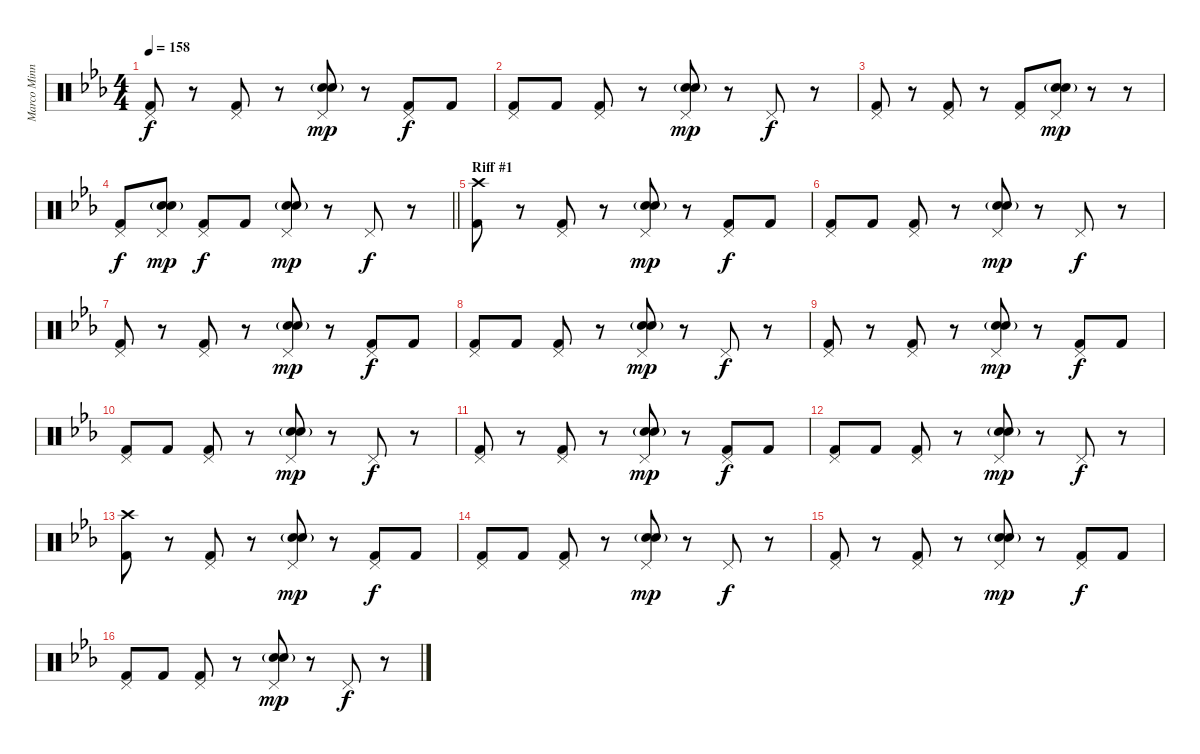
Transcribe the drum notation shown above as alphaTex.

\track ("Marco Minnemann (Drums)" "Marco Minn") {instrument percussion}
\staff {score}
\articulation defaults
\ts (4 4)
\tempo 158
\clef neutral
\ks eb
("Pedal Hi-Hat (hit)" "Kick (hit) 2").8{dy f} r.8 ("Pedal Hi-Hat (hit)" "Kick (hit) 2").8 r.8 ("Pedal Hi-Hat (hit)" "Snare (hit) 2"{g} "Electric Snare (hit)").8{dy mp} r.8 ("Pedal Hi-Hat (hit)" "Kick (hit) 2").8{dy f} "Kick (hit) 2".8 |
("Pedal Hi-Hat (hit)" "Kick (hit) 2").8 "Kick (hit) 2".8 ("Pedal Hi-Hat (hit)" "Kick (hit) 2").8 r.8 ("Pedal Hi-Hat (hit)" "Snare (hit) 2"{g} "Electric Snare (hit)").8{dy mp} r.8 "Pedal Hi-Hat (hit)".8{dy f} r.8 |
("Pedal Hi-Hat (hit)" "Kick (hit) 2").8 r.8 ("Pedal Hi-Hat (hit)" "Kick (hit) 2").8 r.8 ("Pedal Hi-Hat (hit)" "Kick (hit) 2").8 ("Pedal Hi-Hat (hit)" "Snare (hit) 2"{g} "Electric Snare (hit)").8{dy mp} r.8 r.8 |
\barLineRight lightlight
("Pedal Hi-Hat (hit)" "Kick (hit) 2").8{dy f} ("Pedal Hi-Hat (hit)" "Snare (hit) 2"{g} "Electric Snare (hit)").8{dy mp} ("Pedal Hi-Hat (hit)" "Kick (hit) 2").8{dy f} "Kick (hit) 2".8 ("Pedal Hi-Hat (hit)" "Snare (hit) 2"{g} "Electric Snare (hit)").8{dy mp} r.8 "Pedal Hi-Hat (hit)".8{dy f} r.8 |
\section ("" "Riff #1")
("Crash high (hit)" "Kick (hit) 2").8 r.8 ("Pedal Hi-Hat (hit)" "Kick (hit) 2").8 r.8 ("Pedal Hi-Hat (hit)" "Snare (hit) 2"{g} "Electric Snare (hit)").8{dy mp} r.8 ("Pedal Hi-Hat (hit)" "Kick (hit) 2").8{dy f} "Kick (hit) 2".8 |
("Pedal Hi-Hat (hit)" "Kick (hit) 2").8 "Kick (hit) 2".8 ("Pedal Hi-Hat (hit)" "Kick (hit) 2").8 r.8 ("Pedal Hi-Hat (hit)" "Snare (hit) 2"{g} "Electric Snare (hit)").8{dy mp} r.8 "Pedal Hi-Hat (hit)".8{dy f} r.8 |
("Pedal Hi-Hat (hit)" "Kick (hit) 2").8 r.8 ("Pedal Hi-Hat (hit)" "Kick (hit) 2").8 r.8 ("Pedal Hi-Hat (hit)" "Snare (hit) 2"{g} "Electric Snare (hit)").8{dy mp} r.8 ("Pedal Hi-Hat (hit)" "Kick (hit) 2").8{dy f} "Kick (hit) 2".8 |
("Pedal Hi-Hat (hit)" "Kick (hit) 2").8 "Kick (hit) 2".8 ("Pedal Hi-Hat (hit)" "Kick (hit) 2").8 r.8 ("Pedal Hi-Hat (hit)" "Snare (hit) 2"{g} "Electric Snare (hit)").8{dy mp} r.8 "Pedal Hi-Hat (hit)".8{dy f} r.8 |
("Pedal Hi-Hat (hit)" "Kick (hit) 2").8 r.8 ("Pedal Hi-Hat (hit)" "Kick (hit) 2").8 r.8 ("Pedal Hi-Hat (hit)" "Snare (hit) 2"{g} "Electric Snare (hit)").8{dy mp} r.8 ("Pedal Hi-Hat (hit)" "Kick (hit) 2").8{dy f} "Kick (hit) 2".8 |
("Pedal Hi-Hat (hit)" "Kick (hit) 2").8 "Kick (hit) 2".8 ("Pedal Hi-Hat (hit)" "Kick (hit) 2").8 r.8 ("Pedal Hi-Hat (hit)" "Snare (hit) 2"{g} "Electric Snare (hit)").8{dy mp} r.8 "Pedal Hi-Hat (hit)".8{dy f} r.8 |
("Pedal Hi-Hat (hit)" "Kick (hit) 2").8 r.8 ("Pedal Hi-Hat (hit)" "Kick (hit) 2").8 r.8 ("Pedal Hi-Hat (hit)" "Snare (hit) 2"{g} "Electric Snare (hit)").8{dy mp} r.8 ("Pedal Hi-Hat (hit)" "Kick (hit) 2").8{dy f} "Kick (hit) 2".8 |
("Pedal Hi-Hat (hit)" "Kick (hit) 2").8 "Kick (hit) 2".8 ("Pedal Hi-Hat (hit)" "Kick (hit) 2").8 r.8 ("Pedal Hi-Hat (hit)" "Snare (hit) 2"{g} "Electric Snare (hit)").8{dy mp} r.8 "Pedal Hi-Hat (hit)".8{dy f} r.8 |
("Crash high (hit)" "Kick (hit) 2").8 r.8 ("Pedal Hi-Hat (hit)" "Kick (hit) 2").8 r.8 ("Pedal Hi-Hat (hit)" "Snare (hit) 2"{g} "Electric Snare (hit)").8{dy mp} r.8 ("Pedal Hi-Hat (hit)" "Kick (hit) 2").8{dy f} "Kick (hit) 2".8 |
("Pedal Hi-Hat (hit)" "Kick (hit) 2").8 "Kick (hit) 2".8 ("Pedal Hi-Hat (hit)" "Kick (hit) 2").8 r.8 ("Pedal Hi-Hat (hit)" "Snare (hit) 2"{g} "Electric Snare (hit)").8{dy mp} r.8 "Pedal Hi-Hat (hit)".8{dy f} r.8 |
("Pedal Hi-Hat (hit)" "Kick (hit) 2").8 r.8 ("Pedal Hi-Hat (hit)" "Kick (hit) 2").8 r.8 ("Pedal Hi-Hat (hit)" "Snare (hit) 2"{g} "Electric Snare (hit)").8{dy mp} r.8 ("Pedal Hi-Hat (hit)" "Kick (hit) 2").8{dy f} "Kick (hit) 2".8 |
("Pedal Hi-Hat (hit)" "Kick (hit) 2").8 "Kick (hit) 2".8 ("Pedal Hi-Hat (hit)" "Kick (hit) 2").8 r.8 ("Pedal Hi-Hat (hit)" "Snare (hit) 2"{g} "Electric Snare (hit)").8{dy mp} r.8 "Pedal Hi-Hat (hit)".8{dy f} r.8
